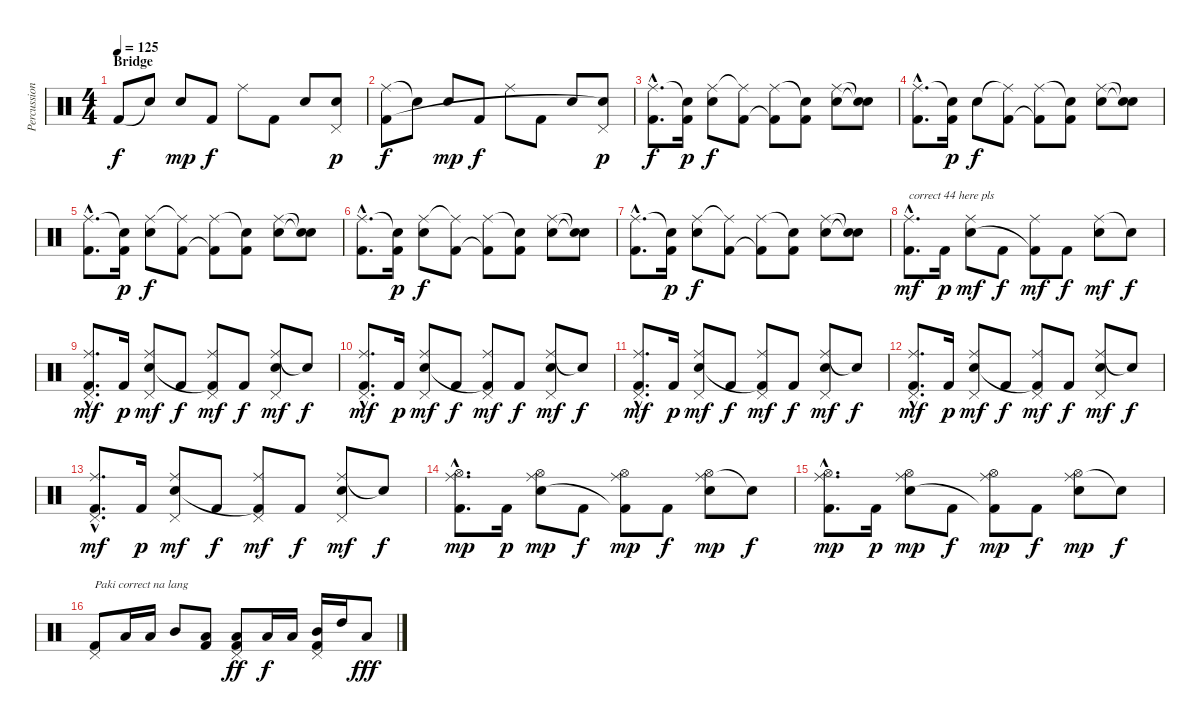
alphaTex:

\track ("Percussion" "Percussion") {instrument percussion}
\staff {score}
\articulation defaults
\ts (4 4)
\section ("" "Bridge")
\tempo 125
\clef neutral
\ks c "Kick (hit) 2".8{dy f volume 12} "Snare (hit)"{t}.8 "Electric Snare (hit)".8{dy mp} "Kick (hit) 2".8{dy f} "Ride (middle)".8 "Kick (hit) 2".8 "Electric Snare (hit)".8
("Pedal Hi-Hat (hit)" "Snare (hit)"{t}).8{dy p} |
("Ride (middle)" "Kick (hit) 2").8{dy f} "Snare (hit)"{t}.8 "Electric Snare (hit)".8{dy mp} "Kick (hit) 2".8{dy f} "Ride (middle)".8 "Kick (hit) 2".8 "Electric Snare (hit)".8 ("Pedal Hi-Hat (hit)" "Snare (hit)"{t}).8{dy p} |
("Ride (middle)"{hac} "Kick (hit) 2"{hac}).8{d dy f} ("Snare (hit)"{t} "Kick (hit) 2").16{dy p} ("Ride (middle)" "Electric Snare (hit)").8{dy f} ("Ride (middle)"{t} "Kick (hit) 2").8 ("Ride (middle)" "Kick (hit) 2"{t}).8 ("Snare (hit)"{t} "Kick (hit) 2").8 ("Ride (middle)" "Electric Snare (hit)").8 ("Snare (hit)"{t} "Electric Snare (hit)"{t}).8 |
("Ride (middle)"{hac} "Kick (hit) 2"{hac}).8{d} ("Snare (hit)"{t} "Kick (hit) 2").16{dy p} "Electric Snare (hit)".8{dy f} ("Ride (middle)"{t} "Kick (hit) 2").8 ("Ride (middle)" "Kick (hit) 2"{t}).8 ("Snare (hit)"{t} "Kick (hit) 2").8 ("Ride (middle)" "Electric Snare (hit)").8 ("Snare (hit)"{t} "Electric Snare (hit)"{t}).8 |
("Ride (middle)"{hac} "Kick (hit) 2"{hac}).8{d} ("Snare (hit)"{t} "Kick (hit) 2").16{dy p} ("Ride (middle)" "Electric Snare (hit)").8{dy f} ("Ride (middle)"{t} "Kick (hit) 2").8 ("Ride (middle)" "Kick (hit) 2"{t}).8 ("Snare (hit)"{t} "Kick (hit) 2").8 ("Ride (middle)" "Electric Snare (hit)").8 ("Snare (hit)"{t} "Electric Snare (hit)"{t}).8 |
("Ride (middle)"{hac} "Kick (hit) 2"{hac}).8{d} ("Snare (hit)"{t} "Kick (hit) 2").16{dy p} ("Ride (middle)" "Electric Snare (hit)").8{dy f} ("Ride (middle)"{t} "Kick (hit) 2").8 ("Ride (middle)" "Kick (hit) 2"{t}).8 ("Snare (hit)"{t} "Kick (hit) 2").8 ("Ride (middle)" "Electric Snare (hit)").8 ("Snare (hit)"{t} "Electric Snare (hit)"{t}).8 |
("Ride (middle)"{hac} "Kick (hit) 2"{hac}).8{d} ("Snare (hit)"{t} "Kick (hit) 2").16{dy p} ("Ride (middle)" "Electric Snare (hit)").8{dy f} ("Ride (middle)"{t} "Kick (hit) 2").8 ("Ride (middle)" "Kick (hit) 2"{t}).8 ("Snare (hit)"{t} "Kick (hit) 2").8 ("Ride (middle)" "Electric Snare (hit)").8 ("Snare (hit)"{t} "Electric Snare (hit)"{t}).8 |
("Ride (middle)"{hac} "Kick (hit) 2"{hac}).8{d txt "correct 44 here pls" dy mf} "Kick (hit) 2".16{dy p} ("Ride (middle)" "Electric Snare (hit)").8{dy mf} "Kick (hit) 2".8{dy f} ("Ride (middle)" "Kick (hit) 2"{t}).8{dy mf} "Kick (hit) 2".8{dy f} ("Ride (middle)" "Electric Snare (hit)").8{dy mf} "Electric Snare (hit)"{t}.8{dy f} |
("Ride (middle)"{hac} "Pedal Hi-Hat (hit)"{hac} "Kick (hit) 2"{hac}).8{d dy mf} "Kick (hit) 2".16{dy p} ("Ride (middle)" "Pedal Hi-Hat (hit)" "Electric Snare (hit)").8{dy mf} "Kick (hit) 2".8{dy f} ("Ride (middle)" "Pedal Hi-Hat (hit)" "Kick (hit) 2"{t}).8{dy mf} "Kick (hit) 2".8{dy f} ("Ride (middle)" "Pedal Hi-Hat (hit)" "Electric Snare (hit)").8{dy mf} "Electric Snare (hit)"{t}.8{dy f} |
("Ride (middle)"{hac} "Pedal Hi-Hat (hit)"{hac} "Kick (hit) 2"{hac}).8{d dy mf} "Kick (hit) 2".16{dy p} ("Ride (middle)" "Pedal Hi-Hat (hit)" "Electric Snare (hit)").8{dy mf} "Kick (hit) 2".8{dy f} ("Ride (middle)" "Pedal Hi-Hat (hit)" "Kick (hit) 2"{t}).8{dy mf} "Kick (hit) 2".8{dy f} ("Ride (middle)" "Pedal Hi-Hat (hit)" "Electric Snare (hit)").8{dy mf} "Electric Snare (hit)"{t}.8{dy f} |
("Ride (middle)"{hac} "Pedal Hi-Hat (hit)"{hac} "Kick (hit) 2"{hac}).8{d dy mf} "Kick (hit) 2".16{dy p} ("Ride (middle)" "Pedal Hi-Hat (hit)" "Electric Snare (hit)").8{dy mf} "Kick (hit) 2".8{dy f} ("Ride (middle)" "Pedal Hi-Hat (hit)" "Kick (hit) 2"{t}).8{dy mf} "Kick (hit) 2".8{dy f} ("Ride (middle)" "Pedal Hi-Hat (hit)" "Electric Snare (hit)").8{dy mf} "Electric Snare (hit)"{t}.8{dy f} |
("Ride (middle)"{hac} "Pedal Hi-Hat (hit)"{hac} "Kick (hit) 2"{hac}).8{d dy mf} "Kick (hit) 2".16{dy p} ("Ride (middle)" "Pedal Hi-Hat (hit)" "Electric Snare (hit)").8{dy mf} "Kick (hit) 2".8{dy f} ("Ride (middle)" "Pedal Hi-Hat (hit)" "Kick (hit) 2"{t}).8{dy mf} "Kick (hit) 2".8{dy f} ("Ride (middle)" "Pedal Hi-Hat (hit)" "Electric Snare (hit)").8{dy mf} "Electric Snare (hit)"{t}.8{dy f} |
("Ride (middle)"{hac} "Pedal Hi-Hat (hit)"{hac} "Kick (hit) 2"{hac}).8{d dy mf} "Kick (hit) 2".16{dy p} ("Ride (middle)" "Pedal Hi-Hat (hit)" "Electric Snare (hit)").8{dy mf} "Kick (hit) 2".8{dy f} ("Ride (middle)" "Pedal Hi-Hat (hit)" "Kick (hit) 2"{t}).8{dy mf} "Kick (hit) 2".8{dy f} ("Ride (middle)" "Pedal Hi-Hat (hit)" "Electric Snare (hit)").8{dy mf} "Electric Snare (hit)"{t}.8{dy f} |
("Ride (middle)"{hac} "Hi-Hat (open)"{hac} "Kick (hit) 2"{hac}).8{d dy mp} "Kick (hit) 2".16{dy p} ("Ride (middle)" "Hi-Hat (open)" "Electric Snare (hit)").8{dy mp} "Kick (hit) 2".8{dy f} ("Ride (middle)" "Hi-Hat (open)" "Kick (hit) 2"{t}).8{dy mp} "Kick (hit) 2".8{dy f} ("Ride (middle)" "Hi-Hat (open)" "Electric Snare (hit)").8{dy mp} "Electric Snare (hit)"{t}.8{dy f} |
("Ride (middle)"{hac} "Hi-Hat (open)"{hac} "Kick (hit) 2"{hac}).8{d dy mp} "Kick (hit) 2".16{dy p} ("Ride (middle)" "Hi-Hat (open)" "Electric Snare (hit)").8{dy mp} "Kick (hit) 2".8{dy f} ("Ride (middle)" "Hi-Hat (open)" "Kick (hit) 2"{t}).8{dy mp} "Kick (hit) 2".8{dy f} ("Ride (middle)" "Hi-Hat (open)" "Electric Snare (hit)").8{dy mp} "Electric Snare (hit)"{t}.8{dy f} |
("Pedal Hi-Hat (hit)" "Kick (hit) 2").8{txt "Paki correct na lang"} "Low Floor Tom (hit)".16 "Low Floor Tom (hit)".16 "Mid Tom (hit)".8 ("Low Tom (hit)" "Kick (hit) 2").8 ("Pedal Hi-Hat (hit)" "Low Tom (hit)" "Kick (hit) 2").8{dy ff} "Low Tom (hit)".16{dy f} "Low Tom (hit)".16 ("Pedal Hi-Hat (hit)" "Mid Tom (hit)" "Kick (hit) 2").16 "High Tom (hit)".16 "Low Tom (hit)".8{dy fff}
